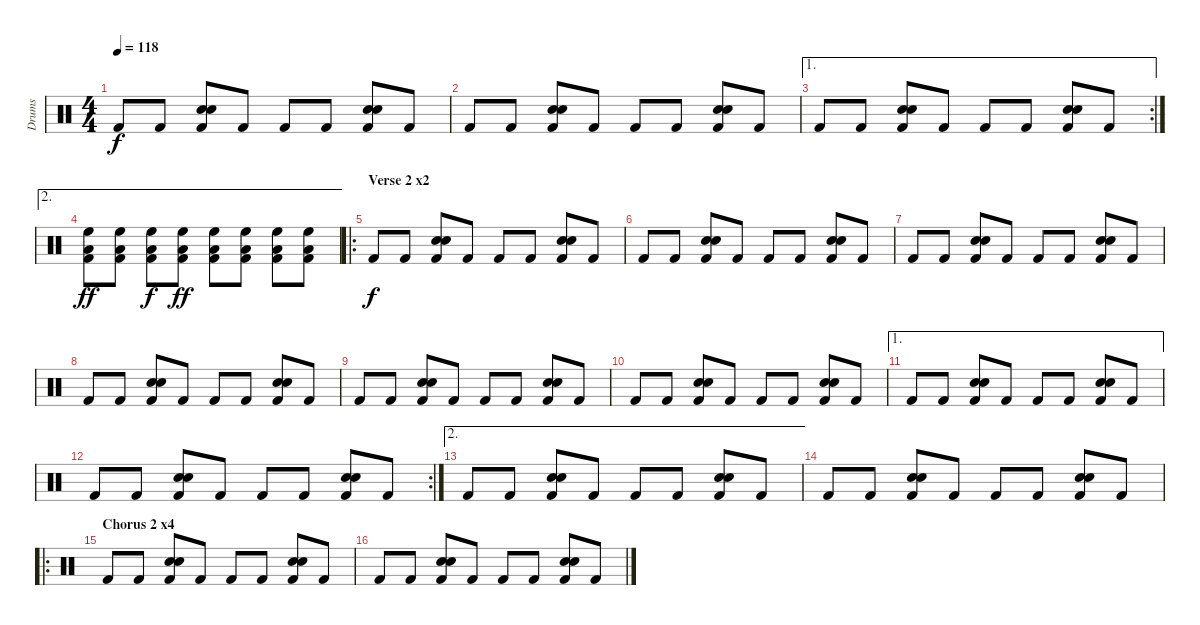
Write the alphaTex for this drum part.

\track ("Drums" "Drums") {instrument percussion}
\staff {score}
\articulation defaults
\ts (4 4)
\tempo 118
\clef neutral
\ks c "Kick (hit) 2".8{dy f} "Kick (hit) 2".8
("Snare (hit) 2" "Electric Snare (hit)" "Kick (hit) 2").8 "Kick (hit) 2".8 "Kick (hit) 2".8 "Kick (hit) 2".8 ("Snare (hit) 2" "Electric Snare (hit)" "Kick (hit) 2").8 "Kick (hit) 2".8 |
"Kick (hit) 2".8 "Kick (hit) 2".8 ("Snare (hit) 2" "Electric Snare (hit)" "Kick (hit) 2").8 "Kick (hit) 2".8 "Kick (hit) 2".8 "Kick (hit) 2".8 ("Snare (hit) 2" "Electric Snare (hit)" "Kick (hit) 2").8 "Kick (hit) 2".8 |
\ae 1
\rc 2 "Kick (hit) 2".8 "Kick (hit) 2".8
("Snare (hit) 2" "Electric Snare (hit)" "Kick (hit) 2").8 "Kick (hit) 2".8 "Kick (hit) 2".8 "Kick (hit) 2".8 ("Snare (hit) 2" "Electric Snare (hit)" "Kick (hit) 2").8 "Kick (hit) 2".8 |
\ae 2
("Low Tom (hit)" "High Floor Tom (hit)" "Kick (hit) 2").8{dy ff} ("Low Tom (hit)" "High Floor Tom (hit)" "Kick (hit) 2").8 ("Low Tom (hit)" "High Floor Tom (hit)" "Kick (hit) 2").8{dy f} ("Low Tom (hit)" "High Floor Tom (hit)" "Kick (hit) 2").8{dy ff} ("Low Tom (hit)" "High Floor Tom (hit)" "Kick (hit) 2").8 ("Low Tom (hit)" "High Floor Tom (hit)" "Kick (hit) 2").8 ("Low Tom (hit)" "High Floor Tom (hit)" "Kick (hit) 2").8 ("Low Tom (hit)" "High Floor Tom (hit)" "Kick (hit) 2").8 |
\ro
\section ("" "Verse 2 x2")
"Kick (hit) 2".8{dy f} "Kick (hit) 2".8 ("Snare (hit) 2" "Electric Snare (hit)" "Kick (hit) 2").8 "Kick (hit) 2".8 "Kick (hit) 2".8 "Kick (hit) 2".8 ("Snare (hit) 2" "Electric Snare (hit)" "Kick (hit) 2").8 "Kick (hit) 2".8 |
"Kick (hit) 2".8 "Kick (hit) 2".8 ("Snare (hit) 2" "Electric Snare (hit)" "Kick (hit) 2").8 "Kick (hit) 2".8 "Kick (hit) 2".8 "Kick (hit) 2".8 ("Snare (hit) 2" "Electric Snare (hit)" "Kick (hit) 2").8 "Kick (hit) 2".8 |
"Kick (hit) 2".8 "Kick (hit) 2".8 ("Snare (hit) 2" "Electric Snare (hit)" "Kick (hit) 2").8 "Kick (hit) 2".8 "Kick (hit) 2".8 "Kick (hit) 2".8 ("Snare (hit) 2" "Electric Snare (hit)" "Kick (hit) 2").8 "Kick (hit) 2".8 |
"Kick (hit) 2".8 "Kick (hit) 2".8 ("Snare (hit) 2" "Electric Snare (hit)" "Kick (hit) 2").8 "Kick (hit) 2".8 "Kick (hit) 2".8 "Kick (hit) 2".8 ("Snare (hit) 2" "Electric Snare (hit)" "Kick (hit) 2").8 "Kick (hit) 2".8 |
"Kick (hit) 2".8 "Kick (hit) 2".8 ("Snare (hit) 2" "Electric Snare (hit)" "Kick (hit) 2").8 "Kick (hit) 2".8 "Kick (hit) 2".8 "Kick (hit) 2".8 ("Snare (hit) 2" "Electric Snare (hit)" "Kick (hit) 2").8 "Kick (hit) 2".8 |
"Kick (hit) 2".8 "Kick (hit) 2".8 ("Snare (hit) 2" "Electric Snare (hit)" "Kick (hit) 2").8 "Kick (hit) 2".8 "Kick (hit) 2".8 "Kick (hit) 2".8 ("Snare (hit) 2" "Electric Snare (hit)" "Kick (hit) 2").8 "Kick (hit) 2".8 |
\ae 1 "Kick (hit) 2".8 "Kick (hit) 2".8
("Snare (hit) 2" "Electric Snare (hit)" "Kick (hit) 2").8 "Kick (hit) 2".8 "Kick (hit) 2".8 "Kick (hit) 2".8 ("Snare (hit) 2" "Electric Snare (hit)" "Kick (hit) 2").8 "Kick (hit) 2".8 |
\rc 2 "Kick (hit) 2".8 "Kick (hit) 2".8
("Snare (hit) 2" "Electric Snare (hit)" "Kick (hit) 2").8 "Kick (hit) 2".8 "Kick (hit) 2".8 "Kick (hit) 2".8 ("Snare (hit) 2" "Electric Snare (hit)" "Kick (hit) 2").8 "Kick (hit) 2".8 |
\ae 2 "Kick (hit) 2".8 "Kick (hit) 2".8
("Snare (hit) 2" "Electric Snare (hit)" "Kick (hit) 2").8 "Kick (hit) 2".8 "Kick (hit) 2".8 "Kick (hit) 2".8 ("Snare (hit) 2" "Electric Snare (hit)" "Kick (hit) 2").8 "Kick (hit) 2".8 |
"Kick (hit) 2".8 "Kick (hit) 2".8 ("Snare (hit) 2" "Electric Snare (hit)" "Kick (hit) 2").8 "Kick (hit) 2".8 "Kick (hit) 2".8 "Kick (hit) 2".8 ("Snare (hit) 2" "Electric Snare (hit)" "Kick (hit) 2").8 "Kick (hit) 2".8 |
\ro
\section ("" "Chorus 2 x4")
"Kick (hit) 2".8 "Kick (hit) 2".8 ("Snare (hit) 2" "Electric Snare (hit)" "Kick (hit) 2").8 "Kick (hit) 2".8 "Kick (hit) 2".8 "Kick (hit) 2".8 ("Snare (hit) 2" "Electric Snare (hit)" "Kick (hit) 2").8 "Kick (hit) 2".8 |
"Kick (hit) 2".8 "Kick (hit) 2".8 ("Snare (hit) 2" "Electric Snare (hit)" "Kick (hit) 2").8 "Kick (hit) 2".8 "Kick (hit) 2".8 "Kick (hit) 2".8 ("Snare (hit) 2" "Electric Snare (hit)" "Kick (hit) 2").8 "Kick (hit) 2".8
